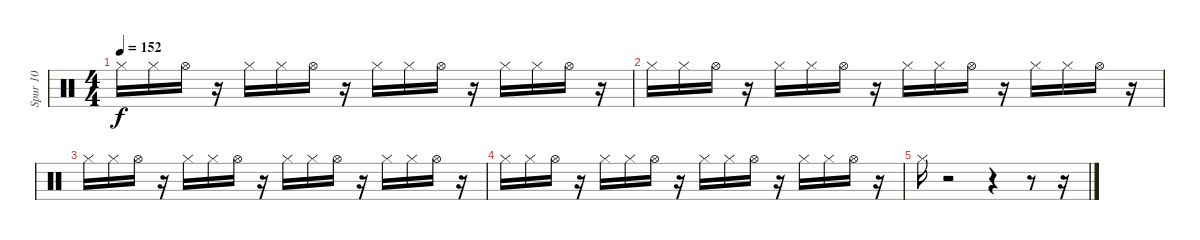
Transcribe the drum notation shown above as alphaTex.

\track ("Spur 10" "Spur 10") {instrument percussion}
\staff {score}
\articulation defaults
\ts (4 4)
\tempo 152
\clef neutral
\ks c "Hi-Hat (closed)".16{dy f} "Hi-Hat (closed)".16 "Hi-Hat (open)".16
r.16 "Hi-Hat (closed)".16 "Hi-Hat (closed)".16 "Hi-Hat (open)".16 r.16 "Hi-Hat (closed)".16 "Hi-Hat (closed)".16 "Hi-Hat (open)".16 r.16 "Hi-Hat (closed)".16 "Hi-Hat (closed)".16 "Hi-Hat (open)".16 r.16 |
"Hi-Hat (closed)".16 "Hi-Hat (closed)".16 "Hi-Hat (open)".16 r.16 "Hi-Hat (closed)".16 "Hi-Hat (closed)".16 "Hi-Hat (open)".16 r.16 "Hi-Hat (closed)".16 "Hi-Hat (closed)".16 "Hi-Hat (open)".16 r.16 "Hi-Hat (closed)".16 "Hi-Hat (closed)".16 "Hi-Hat (open)".16 r.16 |
"Hi-Hat (closed)".16 "Hi-Hat (closed)".16 "Hi-Hat (open)".16 r.16 "Hi-Hat (closed)".16 "Hi-Hat (closed)".16 "Hi-Hat (open)".16 r.16 "Hi-Hat (closed)".16 "Hi-Hat (closed)".16 "Hi-Hat (open)".16 r.16 "Hi-Hat (closed)".16 "Hi-Hat (closed)".16 "Hi-Hat (open)".16 r.16 |
"Hi-Hat (closed)".16 "Hi-Hat (closed)".16 "Hi-Hat (open)".16 r.16 "Hi-Hat (closed)".16 "Hi-Hat (closed)".16 "Hi-Hat (open)".16 r.16 "Hi-Hat (closed)".16 "Hi-Hat (closed)".16 "Hi-Hat (open)".16 r.16 "Hi-Hat (closed)".16 "Hi-Hat (closed)".16 "Hi-Hat (open)".16 r.16 |
"Hi-Hat (closed)".16 r.2 r.4 r.8 r.16
